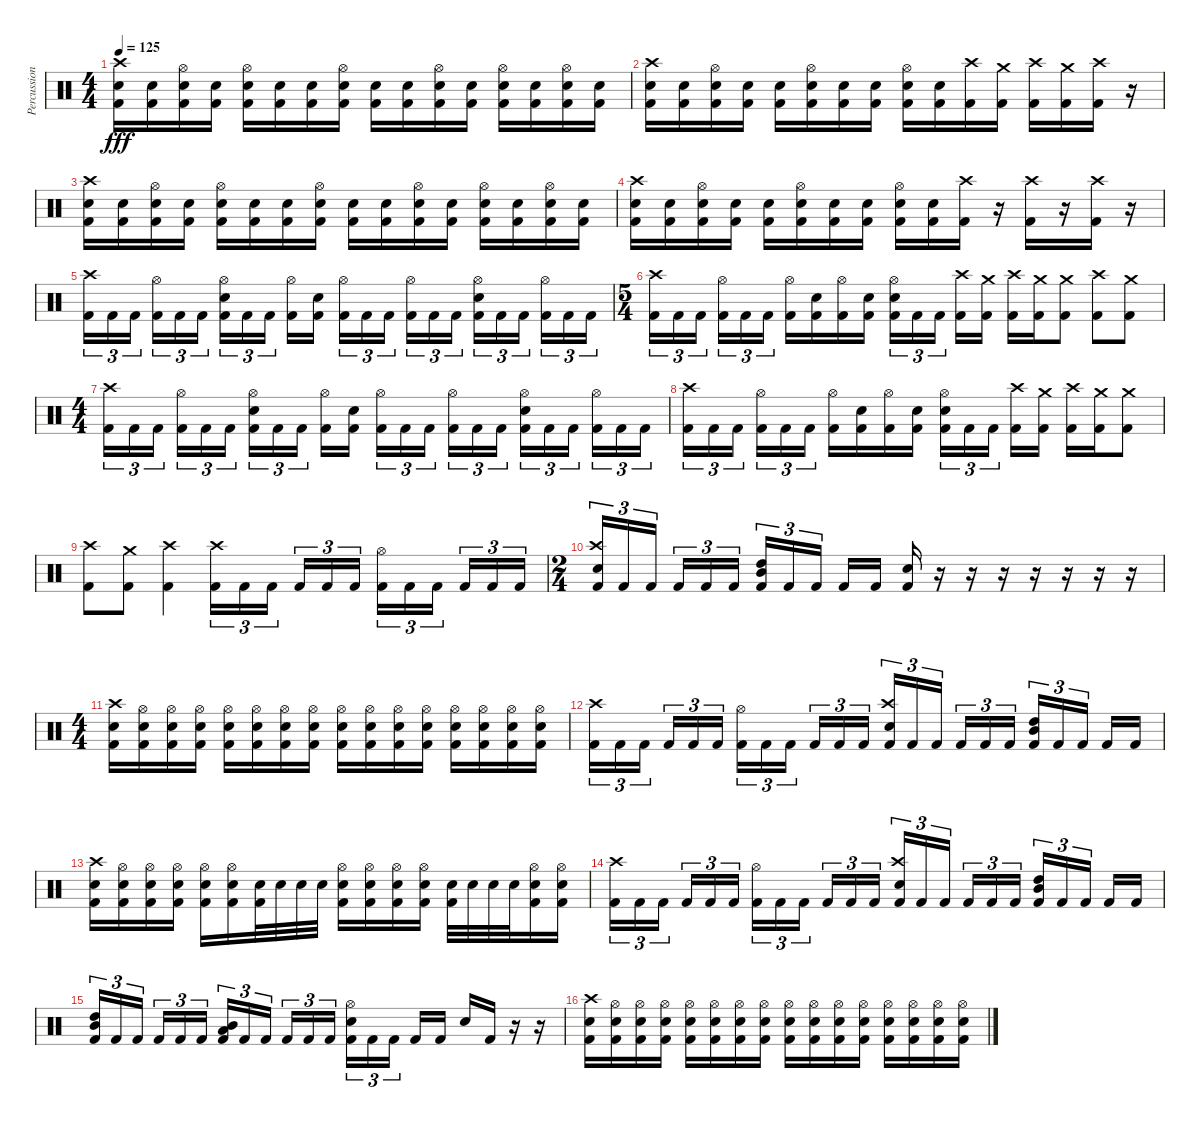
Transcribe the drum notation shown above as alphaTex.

\track ("Percussion" "Percussion") {instrument percussion}
\staff {score}
\articulation defaults
\ts (4 4)
\tempo 125
\clef neutral
\ks c
("Electric Snare (hit)" "Crash high (hit)" "Kick (hit) 2").16{dy fff} ("Electric Snare (hit)" "Kick (hit) 2").16 ("Electric Snare (hit)" "Hi-Hat (open)" "Kick (hit) 2").16 ("Electric Snare (hit)" "Kick (hit) 2").16 ("Electric Snare (hit)" "Hi-Hat (open)" "Kick (hit) 2").16 ("Electric Snare (hit)" "Kick (hit) 2").16 ("Electric Snare (hit)" "Kick (hit) 2").16 ("Electric Snare (hit)" "Hi-Hat (open)" "Kick (hit) 2").16 ("Electric Snare (hit)" "Kick (hit) 2").16 ("Electric Snare (hit)" "Kick (hit) 2").16 ("Electric Snare (hit)" "Hi-Hat (open)" "Kick (hit) 2").16 ("Electric Snare (hit)" "Kick (hit) 2").16 ("Electric Snare (hit)" "Hi-Hat (open)" "Kick (hit) 2").16 ("Electric Snare (hit)" "Kick (hit) 2").16 ("Electric Snare (hit)" "Hi-Hat (open)" "Kick (hit) 2").16 ("Electric Snare (hit)" "Kick (hit) 2").16 |
("Electric Snare (hit)" "Crash high (hit)" "Kick (hit) 2").16 ("Electric Snare (hit)" "Kick (hit) 2").16 ("Electric Snare (hit)" "Hi-Hat (open)" "Kick (hit) 2").16 ("Electric Snare (hit)" "Kick (hit) 2").16 ("Electric Snare (hit)" "Kick (hit) 2").16 ("Electric Snare (hit)" "Hi-Hat (open)" "Kick (hit) 2").16 ("Electric Snare (hit)" "Kick (hit) 2").16 ("Electric Snare (hit)" "Kick (hit) 2").16 ("Electric Snare (hit)" "Hi-Hat (open)" "Kick (hit) 2").16 ("Electric Snare (hit)" "Kick (hit) 2").16 ("Crash high (hit)" "Kick (hit) 2").16 ("Crash medium (hit)" "Kick (hit) 2").16 ("Crash high (hit)" "Kick (hit) 2").16 ("Crash medium (hit)" "Kick (hit) 2").16 ("Crash high (hit)" "Kick (hit) 2").16 r.16{volume 0} |
("Electric Snare (hit)" "Crash high (hit)" "Kick (hit) 2").16{volume 13} ("Electric Snare (hit)" "Kick (hit) 2").16 ("Electric Snare (hit)" "Hi-Hat (open)" "Kick (hit) 2").16 ("Electric Snare (hit)" "Kick (hit) 2").16 ("Electric Snare (hit)" "Hi-Hat (open)" "Kick (hit) 2").16 ("Electric Snare (hit)" "Kick (hit) 2").16 ("Electric Snare (hit)" "Kick (hit) 2").16 ("Electric Snare (hit)" "Hi-Hat (open)" "Kick (hit) 2").16 ("Electric Snare (hit)" "Kick (hit) 2").16 ("Electric Snare (hit)" "Kick (hit) 2").16 ("Electric Snare (hit)" "Hi-Hat (open)" "Kick (hit) 2").16 ("Electric Snare (hit)" "Kick (hit) 2").16 ("Electric Snare (hit)" "Hi-Hat (open)" "Kick (hit) 2").16 ("Electric Snare (hit)" "Kick (hit) 2").16 ("Electric Snare (hit)" "Hi-Hat (open)" "Kick (hit) 2").16 ("Electric Snare (hit)" "Kick (hit) 2").16 |
("Electric Snare (hit)" "Crash high (hit)" "Kick (hit) 2").16 ("Electric Snare (hit)" "Kick (hit) 2").16 ("Electric Snare (hit)" "Hi-Hat (open)" "Kick (hit) 2").16 ("Electric Snare (hit)" "Kick (hit) 2").16 ("Electric Snare (hit)" "Kick (hit) 2").16 ("Electric Snare (hit)" "Hi-Hat (open)" "Kick (hit) 2").16 ("Electric Snare (hit)" "Kick (hit) 2").16 ("Electric Snare (hit)" "Kick (hit) 2").16 ("Electric Snare (hit)" "Hi-Hat (open)" "Kick (hit) 2").16 ("Electric Snare (hit)" "Kick (hit) 2").16 ("Crash high (hit)" "Kick (hit) 2").16 r.16{volume 0} ("Crash high (hit)" "Kick (hit) 2").16{volume 13} r.16{volume 0} ("Crash high (hit)" "Kick (hit) 2").16{volume 13} r.16{volume 13} |
("Crash high (hit)" "Kick (hit) 2").16{tu (3 2)} "Kick (hit) 2".16{tu (3 2)} "Kick (hit) 2".16{tu (3 2) beam splitsecondary} ("Hi-Hat (open)" "Kick (hit) 2").16{tu (3 2)} "Kick (hit) 2".16{tu (3 2)} "Kick (hit) 2".16{tu (3 2)} ("Electric Snare (hit)" "Hi-Hat (open)" "Kick (hit) 2").16{tu (3 2)} "Kick (hit) 2".16{tu (3 2)} "Kick (hit) 2".16{tu (3 2) beam splitsecondary} ("Hi-Hat (open)" "Kick (hit) 2").16 ("Electric Snare (hit)" "Kick (hit) 2").16 ("Hi-Hat (open)" "Kick (hit) 2").16{tu (3 2)} "Kick (hit) 2".16{tu (3 2)} "Kick (hit) 2".16{tu (3 2) beam splitsecondary} ("Hi-Hat (open)" "Kick (hit) 2").16{tu (3 2)} "Kick (hit) 2".16{tu (3 2)} "Kick (hit) 2".16{tu (3 2)} ("Electric Snare (hit)" "Hi-Hat (open)" "Kick (hit) 2").16{tu (3 2)} "Kick (hit) 2".16{tu (3 2)} "Kick (hit) 2".16{tu (3 2) beam splitsecondary} ("Hi-Hat (open)" "Kick (hit) 2").16{tu (3 2)} "Kick (hit) 2".16{tu (3 2)} "Kick (hit) 2".16{tu (3 2)} |
\ts (5 4)
("Crash high (hit)" "Kick (hit) 2").16{tu (3 2)} "Kick (hit) 2".16{tu (3 2)} "Kick (hit) 2".16{tu (3 2) beam splitsecondary} ("Hi-Hat (open)" "Kick (hit) 2").16{tu (3 2)} "Kick (hit) 2".16{tu (3 2)} "Kick (hit) 2".16{tu (3 2)} ("Hi-Hat (open)" "Kick (hit) 2").16 ("Electric Snare (hit)" "Kick (hit) 2").16 ("Hi-Hat (open)" "Kick (hit) 2").16 ("Electric Snare (hit)" "Kick (hit) 2").16 ("Electric Snare (hit)" "Hi-Hat (open)" "Kick (hit) 2").16{tu (3 2)} "Kick (hit) 2".16{tu (3 2)} "Kick (hit) 2".16{tu (3 2) beam splitsecondary} ("Crash high (hit)" "Kick (hit) 2").16 ("Crash medium (hit)" "Kick (hit) 2").16 ("Crash high (hit)" "Kick (hit) 2").16 ("Crash medium (hit)" "Kick (hit) 2").16 ("Crash medium (hit)" "Kick (hit) 2").8 ("Crash high (hit)" "Kick (hit) 2").8 ("Crash medium (hit)" "Kick (hit) 2").8 |
\ts (4 4)
("Crash high (hit)" "Kick (hit) 2").16{tu (3 2)} "Kick (hit) 2".16{tu (3 2)} "Kick (hit) 2".16{tu (3 2) beam splitsecondary} ("Hi-Hat (open)" "Kick (hit) 2").16{tu (3 2)} "Kick (hit) 2".16{tu (3 2)} "Kick (hit) 2".16{tu (3 2)} ("Electric Snare (hit)" "Hi-Hat (open)" "Kick (hit) 2").16{tu (3 2)} "Kick (hit) 2".16{tu (3 2)} "Kick (hit) 2".16{tu (3 2) beam splitsecondary} ("Hi-Hat (open)" "Kick (hit) 2").16 ("Electric Snare (hit)" "Kick (hit) 2").16 ("Hi-Hat (open)" "Kick (hit) 2").16{tu (3 2)} "Kick (hit) 2".16{tu (3 2)} "Kick (hit) 2".16{tu (3 2) beam splitsecondary} ("Hi-Hat (open)" "Kick (hit) 2").16{tu (3 2)} "Kick (hit) 2".16{tu (3 2)} "Kick (hit) 2".16{tu (3 2)} ("Electric Snare (hit)" "Hi-Hat (open)" "Kick (hit) 2").16{tu (3 2)} "Kick (hit) 2".16{tu (3 2)} "Kick (hit) 2".16{tu (3 2) beam splitsecondary} ("Hi-Hat (open)" "Kick (hit) 2").16{tu (3 2)} "Kick (hit) 2".16{tu (3 2)} "Kick (hit) 2".16{tu (3 2)} |
("Crash high (hit)" "Kick (hit) 2").16{tu (3 2)} "Kick (hit) 2".16{tu (3 2)} "Kick (hit) 2".16{tu (3 2) beam splitsecondary} ("Hi-Hat (open)" "Kick (hit) 2").16{tu (3 2)} "Kick (hit) 2".16{tu (3 2)} "Kick (hit) 2".16{tu (3 2)} ("Hi-Hat (open)" "Kick (hit) 2").16 ("Electric Snare (hit)" "Kick (hit) 2").16 ("Hi-Hat (open)" "Kick (hit) 2").16 ("Electric Snare (hit)" "Kick (hit) 2").16 ("Electric Snare (hit)" "Hi-Hat (open)" "Kick (hit) 2").16{tu (3 2)} "Kick (hit) 2".16{tu (3 2)} "Kick (hit) 2".16{tu (3 2) beam splitsecondary} ("Crash high (hit)" "Kick (hit) 2").16 ("Crash medium (hit)" "Kick (hit) 2").16 ("Crash high (hit)" "Kick (hit) 2").16 ("Crash medium (hit)" "Kick (hit) 2").16 ("Crash medium (hit)" "Kick (hit) 2").8 |
("Crash high (hit)" "Kick (hit) 2").8 ("Crash medium (hit)" "Kick (hit) 2").8 ("Crash high (hit)" "Kick (hit) 2").4 ("Crash high (hit)" "Kick (hit) 2").16{tu (3 2)} "Kick (hit) 2".16{tu (3 2)} "Kick (hit) 2".16{tu (3 2) beam splitsecondary} "Kick (hit) 2".16{tu (3 2)} "Kick (hit) 2".16{tu (3 2)} "Kick (hit) 2".16{tu (3 2)} ("Hi-Hat (open)" "Kick (hit) 2").16{tu (3 2)} "Kick (hit) 2".16{tu (3 2)} "Kick (hit) 2".16{tu (3 2) beam splitsecondary} "Kick (hit) 2".16{tu (3 2)} "Kick (hit) 2".16{tu (3 2)} "Kick (hit) 2".16{tu (3 2)} |
\ts (2 4)
("Electric Snare (hit)" "Crash high (hit)" "Kick (hit) 2").16{tu (3 2)} "Kick (hit) 2".16{tu (3 2)} "Kick (hit) 2".16{tu (3 2) beam splitsecondary} "Kick (hit) 2".16{tu (3 2)} "Kick (hit) 2".16{tu (3 2)} "Kick (hit) 2".16{tu (3 2)} ("Mid Tom (hit)" "High Tom (hit)" "Kick (hit) 2").16{tu (3 2)} "Kick (hit) 2".16{tu (3 2)} "Kick (hit) 2".16{tu (3 2) beam splitsecondary} "Kick (hit) 2".16 "Kick (hit) 2".16 ("Electric Snare (hit)" "Kick (hit) 2").16 r.16 r.16 r.16 r.16 r.16 r.16 r.16 |
\ts (4 4)
("Electric Snare (hit)" "Crash high (hit)" "Kick (hit) 2").16 ("Electric Snare (hit)" "Hi-Hat (open)" "Kick (hit) 2").16 ("Electric Snare (hit)" "Hi-Hat (open)" "Kick (hit) 2").16 ("Electric Snare (hit)" "Hi-Hat (open)" "Kick (hit) 2").16 ("Electric Snare (hit)" "Hi-Hat (open)" "Kick (hit) 2").16 ("Electric Snare (hit)" "Hi-Hat (open)" "Kick (hit) 2").16 ("Electric Snare (hit)" "Hi-Hat (open)" "Kick (hit) 2").16 ("Electric Snare (hit)" "Hi-Hat (open)" "Kick (hit) 2").16 ("Electric Snare (hit)" "Hi-Hat (open)" "Kick (hit) 2").16 ("Electric Snare (hit)" "Hi-Hat (open)" "Kick (hit) 2").16 ("Electric Snare (hit)" "Hi-Hat (open)" "Kick (hit) 2").16 ("Electric Snare (hit)" "Hi-Hat (open)" "Kick (hit) 2").16 ("Electric Snare (hit)" "Hi-Hat (open)" "Kick (hit) 2").16 ("Electric Snare (hit)" "Hi-Hat (open)" "Kick (hit) 2").16 ("Electric Snare (hit)" "Hi-Hat (open)" "Kick (hit) 2").16 ("Electric Snare (hit)" "Hi-Hat (open)" "Kick (hit) 2").16 |
("Crash high (hit)" "Kick (hit) 2").16{tu (3 2)} "Kick (hit) 2".16{tu (3 2)} "Kick (hit) 2".16{tu (3 2) beam splitsecondary} "Kick (hit) 2".16{tu (3 2)} "Kick (hit) 2".16{tu (3 2)} "Kick (hit) 2".16{tu (3 2)} ("Hi-Hat (open)" "Kick (hit) 2").16{tu (3 2)} "Kick (hit) 2".16{tu (3 2)} "Kick (hit) 2".16{tu (3 2) beam splitsecondary} "Kick (hit) 2".16{tu (3 2)} "Kick (hit) 2".16{tu (3 2)} "Kick (hit) 2".16{tu (3 2)} ("Electric Snare (hit)" "Crash high (hit)" "Kick (hit) 2").16{tu (3 2)} "Kick (hit) 2".16{tu (3 2)} "Kick (hit) 2".16{tu (3 2) beam splitsecondary} "Kick (hit) 2".16{tu (3 2)} "Kick (hit) 2".16{tu (3 2)} "Kick (hit) 2".16{tu (3 2)} ("Mid Tom (hit)" "High Tom (hit)" "Kick (hit) 2").16{tu (3 2)} "Kick (hit) 2".16{tu (3 2)} "Kick (hit) 2".16{tu (3 2) beam splitsecondary} "Kick (hit) 2".16 "Kick (hit) 2".16 |
("Electric Snare (hit)" "Crash high (hit)" "Kick (hit) 2").16 ("Electric Snare (hit)" "Hi-Hat (open)" "Kick (hit) 2").16 ("Electric Snare (hit)" "Hi-Hat (open)" "Kick (hit) 2").16 ("Electric Snare (hit)" "Hi-Hat (open)" "Kick (hit) 2").16 ("Electric Snare (hit)" "Hi-Hat (open)" "Kick (hit) 2").16 ("Electric Snare (hit)" "Hi-Hat (open)" "Kick (hit) 2").16 ("Electric Snare (hit)" "Kick (hit) 2").32 "Electric Snare (hit)".32 "Electric Snare (hit)".32 "Electric Snare (hit)".32 ("Electric Snare (hit)" "Hi-Hat (open)" "Kick (hit) 2").16 ("Electric Snare (hit)" "Hi-Hat (open)" "Kick (hit) 2").16 ("Electric Snare (hit)" "Hi-Hat (open)" "Kick (hit) 2").16 ("Electric Snare (hit)" "Hi-Hat (open)" "Kick (hit) 2").16 ("Electric Snare (hit)" "Kick (hit) 2").32 "Electric Snare (hit)".32 "Electric Snare (hit)".32 "Electric Snare (hit)".32 ("Electric Snare (hit)" "Hi-Hat (open)" "Kick (hit) 2").16 ("Electric Snare (hit)" "Hi-Hat (open)" "Kick (hit) 2").16 |
("Crash high (hit)" "Kick (hit) 2").16{tu (3 2)} "Kick (hit) 2".16{tu (3 2)} "Kick (hit) 2".16{tu (3 2) beam splitsecondary} "Kick (hit) 2".16{tu (3 2)} "Kick (hit) 2".16{tu (3 2)} "Kick (hit) 2".16{tu (3 2)} ("Hi-Hat (open)" "Kick (hit) 2").16{tu (3 2)} "Kick (hit) 2".16{tu (3 2)} "Kick (hit) 2".16{tu (3 2) beam splitsecondary} "Kick (hit) 2".16{tu (3 2)} "Kick (hit) 2".16{tu (3 2)} "Kick (hit) 2".16{tu (3 2)} ("Electric Snare (hit)" "Crash high (hit)" "Kick (hit) 2").16{tu (3 2)} "Kick (hit) 2".16{tu (3 2)} "Kick (hit) 2".16{tu (3 2) beam splitsecondary} "Kick (hit) 2".16{tu (3 2)} "Kick (hit) 2".16{tu (3 2)} "Kick (hit) 2".16{tu (3 2)} ("Mid Tom (hit)" "High Tom (hit)" "Kick (hit) 2").16{tu (3 2)} "Kick (hit) 2".16{tu (3 2)} "Kick (hit) 2".16{tu (3 2) beam splitsecondary} "Kick (hit) 2".16 "Kick (hit) 2".16 |
("Mid Tom (hit)" "High Tom (hit)" "Kick (hit) 2").16{tu (3 2)} "Kick (hit) 2".16{tu (3 2)} "Kick (hit) 2".16{tu (3 2) beam splitsecondary} "Kick (hit) 2".16{tu (3 2)} "Kick (hit) 2".16{tu (3 2)} "Kick (hit) 2".16{tu (3 2)} ("Low Tom (hit)" "Mid Tom (hit)" "Kick (hit) 2").16{tu (3 2)} "Kick (hit) 2".16{tu (3 2)} "Kick (hit) 2".16{tu (3 2) beam splitsecondary} "Kick (hit) 2".16{tu (3 2)} "Kick (hit) 2".16{tu (3 2)} "Kick (hit) 2".16{tu (3 2)} ("Electric Snare (hit)" "Hi-Hat (open)" "Kick (hit) 2").16{tu (3 2)} "Kick (hit) 2".16{tu (3 2)} "Kick (hit) 2".16{tu (3 2) beam splitsecondary} "Kick (hit) 2".16 "Kick (hit) 2".16 "Electric Snare (hit)".16 "Kick (hit) 2".16 r.16 r.16 |
("Electric Snare (hit)" "Crash high (hit)" "Kick (hit) 2").16 ("Electric Snare (hit)" "Hi-Hat (open)" "Kick (hit) 2").16 ("Electric Snare (hit)" "Hi-Hat (open)" "Kick (hit) 2").16 ("Electric Snare (hit)" "Hi-Hat (open)" "Kick (hit) 2").16 ("Electric Snare (hit)" "Hi-Hat (open)" "Kick (hit) 2").16 ("Electric Snare (hit)" "Hi-Hat (open)" "Kick (hit) 2").16 ("Electric Snare (hit)" "Hi-Hat (open)" "Kick (hit) 2").16 ("Electric Snare (hit)" "Hi-Hat (open)" "Kick (hit) 2").16 ("Electric Snare (hit)" "Hi-Hat (open)" "Kick (hit) 2").16 ("Electric Snare (hit)" "Hi-Hat (open)" "Kick (hit) 2").16 ("Electric Snare (hit)" "Hi-Hat (open)" "Kick (hit) 2").16 ("Electric Snare (hit)" "Hi-Hat (open)" "Kick (hit) 2").16 ("Electric Snare (hit)" "Hi-Hat (open)" "Kick (hit) 2").16 ("Electric Snare (hit)" "Hi-Hat (open)" "Kick (hit) 2").16 ("Electric Snare (hit)" "Hi-Hat (open)" "Kick (hit) 2").16 ("Electric Snare (hit)" "Hi-Hat (open)" "Kick (hit) 2").16
